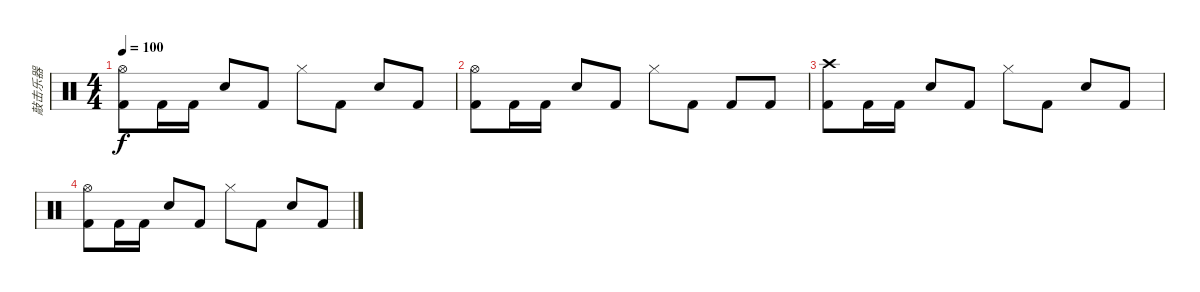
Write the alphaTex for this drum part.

\track ("敲击乐器" "敲击乐器") {instrument percussion}
\staff {score}
\articulation defaults
\ts (4 4)
\tempo 100
\clef neutral
\ks c
("Kick (hit) 2" "Hi-Hat (open)").8{dy f} "Kick (hit) 2".16 "Kick (hit) 2".16 "Metronome (bell)".8 "Kick (hit) 2".8 "Hi-Hat (closed)".8 "Kick (hit) 2".8 "Metronome (bell)".8 "Kick (hit) 2".8 |
("Kick (hit) 2" "Hi-Hat (open)").8 "Kick (hit) 2".16 "Kick (hit) 2".16 "Metronome (bell)".8 "Kick (hit) 2".8 "Hi-Hat (closed)".8 "Kick (hit) 2".8 "Kick (hit) 2".8 "Kick (hit) 2".8 |
("Kick (hit) 2" "Crash high (hit)").8{volume 0} "Kick (hit) 2".16 "Kick (hit) 2".16 "Metronome (bell)".8 "Kick (hit) 2".8 "Hi-Hat (closed)".8 "Kick (hit) 2".8 "Metronome (bell)".8 "Kick (hit) 2".8 |
("Kick (hit) 2" "Hi-Hat (open)").8 "Kick (hit) 2".16 "Kick (hit) 2".16 "Metronome (bell)".8 "Kick (hit) 2".8 "Hi-Hat (closed)".8 "Kick (hit) 2".8 "Metronome (bell)".8 "Kick (hit) 2".8
